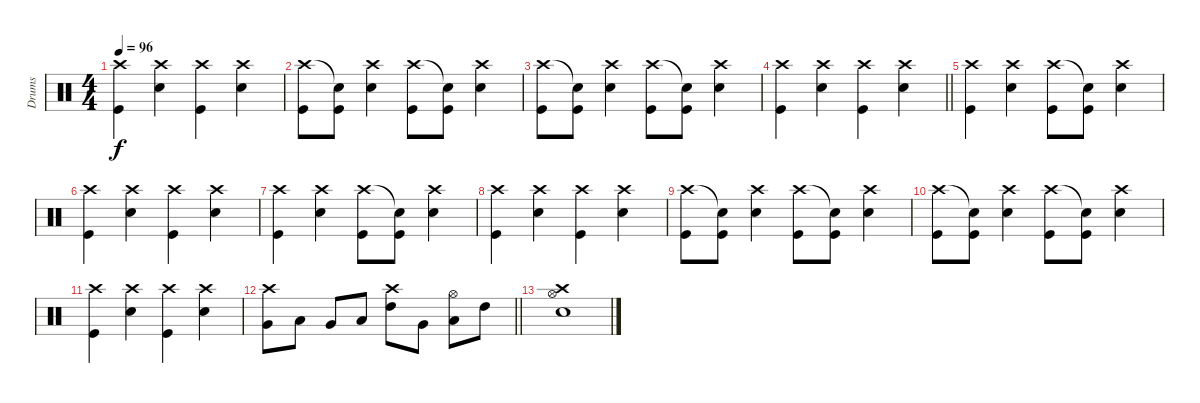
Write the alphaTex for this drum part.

\track ("Drums" "Drums") {instrument percussion}
\staff {score}
\articulation defaults
\ts (4 4)
\tempo 96
\clef neutral
\ks c
("Kick (hit)" "Crash high (hit)").4{dy f} ("Snare (hit) 2" "Crash high (hit)").4 ("Kick (hit)" "Crash high (hit)").4 ("Snare (hit) 2" "Crash high (hit)").4 |
("Kick (hit)" "Crash high (hit)").8 ("Kick (hit)" "Snare (hit)"{t}).8 ("Snare (hit) 2" "Crash high (hit)").4 ("Kick (hit)" "Crash high (hit)").8 ("Kick (hit)" "Snare (hit)"{t}).8 ("Snare (hit) 2" "Crash high (hit)").4 |
("Kick (hit)" "Crash high (hit)").8 ("Kick (hit)" "Snare (hit)"{t}).8 ("Snare (hit) 2" "Crash high (hit)").4 ("Kick (hit)" "Crash high (hit)").8 ("Kick (hit)" "Snare (hit)"{t}).8 ("Snare (hit) 2" "Crash high (hit)").4 |
\barLineRight lightlight
("Kick (hit)" "Crash high (hit)").4 ("Snare (hit) 2" "Crash high (hit)").4 ("Kick (hit)" "Crash high (hit)").4 ("Snare (hit) 2" "Crash high (hit)").4 |
("Kick (hit)" "Crash high (hit)").4 ("Snare (hit) 2" "Crash high (hit)").4 ("Kick (hit)" "Crash high (hit)").8 ("Kick (hit)" "Snare (hit)"{t}).8 ("Snare (hit) 2" "Crash high (hit)").4 |
("Kick (hit)" "Crash high (hit)").4 ("Snare (hit) 2" "Crash high (hit)").4 ("Kick (hit)" "Crash high (hit)").4 ("Snare (hit) 2" "Crash high (hit)").4 |
("Kick (hit)" "Crash high (hit)").4 ("Snare (hit) 2" "Crash high (hit)").4 ("Kick (hit)" "Crash high (hit)").8 ("Kick (hit)" "Snare (hit)"{t}).8 ("Snare (hit) 2" "Crash high (hit)").4 |
("Kick (hit)" "Crash high (hit)").4 ("Snare (hit) 2" "Crash high (hit)").4 ("Kick (hit)" "Crash high (hit)").4 ("Snare (hit) 2" "Crash high (hit)").4 |
("Kick (hit)" "Crash high (hit)").8 ("Kick (hit)" "Snare (hit)"{t}).8 ("Snare (hit) 2" "Crash high (hit)").4 ("Kick (hit)" "Crash high (hit)").8 ("Kick (hit)" "Snare (hit)"{t}).8 ("Snare (hit) 2" "Crash high (hit)").4 |
("Kick (hit)" "Crash high (hit)").8 ("Kick (hit)" "Snare (hit)"{t}).8 ("Snare (hit) 2" "Crash high (hit)").4 ("Kick (hit)" "Crash high (hit)").8 ("Kick (hit)" "Snare (hit)"{t}).8 ("Snare (hit) 2" "Crash high (hit)").4 |
("Kick (hit)" "Crash high (hit)").4 ("Snare (hit) 2" "Crash high (hit)").4 ("Kick (hit)" "Crash high (hit)").4 ("Snare (hit) 2" "Crash high (hit)").4 |
\barLineRight lightlight
("Very Low Tom (hit)" "Crash high (hit)").8 "Low Tom (hit)".8 "Very Low Tom (hit)".8 "Low Tom (hit)".8 ("High Tom (hit)" "Crash high (hit)").8 "Very Low Tom (hit)".8 ("Low Tom (hit)" "Hi-Hat (open)").8 "High Tom (hit)".8 |
("Hi-Hat (open)" "Crash high (hit)" "Snare (hit) 2").1
